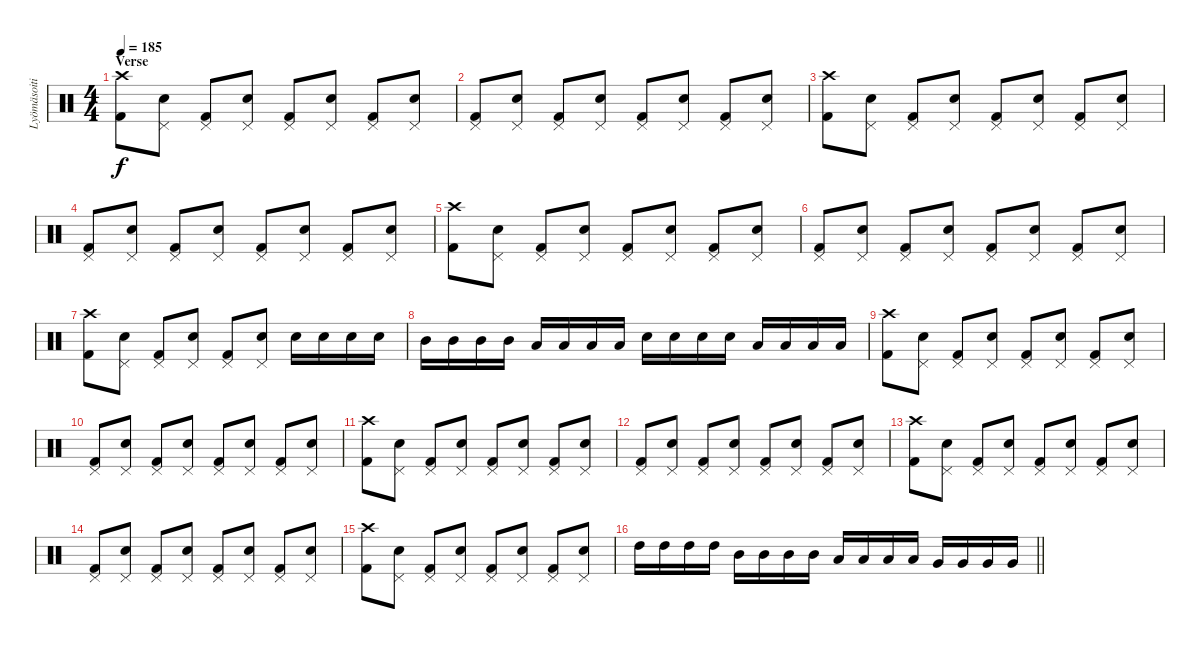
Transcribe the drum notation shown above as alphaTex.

\track ("Lyömäsoitin" "Lyömäsoiti") {instrument percussion}
\staff {score}
\articulation defaults
\ts (4 4)
\section ("" "Verse")
\tempo 185
\clef neutral
\ks c
("Crash high (hit)" "Kick (hit) 2").8{dy f} ("Pedal Hi-Hat (hit)" "Electric Snare (hit)").8 ("Pedal Hi-Hat (hit)" "Kick (hit) 2").8 ("Pedal Hi-Hat (hit)" "Electric Snare (hit)").8 ("Pedal Hi-Hat (hit)" "Kick (hit) 2").8 ("Pedal Hi-Hat (hit)" "Electric Snare (hit)").8 ("Pedal Hi-Hat (hit)" "Kick (hit) 2").8 ("Pedal Hi-Hat (hit)" "Electric Snare (hit)").8 |
("Pedal Hi-Hat (hit)" "Kick (hit) 2").8 ("Pedal Hi-Hat (hit)" "Electric Snare (hit)").8 ("Pedal Hi-Hat (hit)" "Kick (hit) 2").8 ("Pedal Hi-Hat (hit)" "Electric Snare (hit)").8 ("Pedal Hi-Hat (hit)" "Kick (hit) 2").8 ("Pedal Hi-Hat (hit)" "Electric Snare (hit)").8 ("Pedal Hi-Hat (hit)" "Kick (hit) 2").8 ("Pedal Hi-Hat (hit)" "Electric Snare (hit)").8 |
("Crash high (hit)" "Kick (hit) 2").8 ("Pedal Hi-Hat (hit)" "Electric Snare (hit)").8 ("Pedal Hi-Hat (hit)" "Kick (hit) 2").8 ("Pedal Hi-Hat (hit)" "Electric Snare (hit)").8 ("Pedal Hi-Hat (hit)" "Kick (hit) 2").8 ("Pedal Hi-Hat (hit)" "Electric Snare (hit)").8 ("Pedal Hi-Hat (hit)" "Kick (hit) 2").8 ("Pedal Hi-Hat (hit)" "Electric Snare (hit)").8 |
("Pedal Hi-Hat (hit)" "Kick (hit) 2").8 ("Pedal Hi-Hat (hit)" "Electric Snare (hit)").8 ("Pedal Hi-Hat (hit)" "Kick (hit) 2").8 ("Pedal Hi-Hat (hit)" "Electric Snare (hit)").8 ("Pedal Hi-Hat (hit)" "Kick (hit) 2").8 ("Pedal Hi-Hat (hit)" "Electric Snare (hit)").8 ("Pedal Hi-Hat (hit)" "Kick (hit) 2").8 ("Pedal Hi-Hat (hit)" "Electric Snare (hit)").8 |
("Crash high (hit)" "Kick (hit) 2").8 ("Pedal Hi-Hat (hit)" "Electric Snare (hit)").8 ("Pedal Hi-Hat (hit)" "Kick (hit) 2").8 ("Pedal Hi-Hat (hit)" "Electric Snare (hit)").8 ("Pedal Hi-Hat (hit)" "Kick (hit) 2").8 ("Pedal Hi-Hat (hit)" "Electric Snare (hit)").8 ("Pedal Hi-Hat (hit)" "Kick (hit) 2").8 ("Pedal Hi-Hat (hit)" "Electric Snare (hit)").8 |
("Pedal Hi-Hat (hit)" "Kick (hit) 2").8 ("Pedal Hi-Hat (hit)" "Electric Snare (hit)").8 ("Pedal Hi-Hat (hit)" "Kick (hit) 2").8 ("Pedal Hi-Hat (hit)" "Electric Snare (hit)").8 ("Pedal Hi-Hat (hit)" "Kick (hit) 2").8 ("Pedal Hi-Hat (hit)" "Electric Snare (hit)").8 ("Pedal Hi-Hat (hit)" "Kick (hit) 2").8 ("Pedal Hi-Hat (hit)" "Electric Snare (hit)").8 |
("Crash high (hit)" "Kick (hit) 2").8 ("Pedal Hi-Hat (hit)" "Electric Snare (hit)").8 ("Pedal Hi-Hat (hit)" "Kick (hit) 2").8 ("Pedal Hi-Hat (hit)" "Electric Snare (hit)").8 ("Pedal Hi-Hat (hit)" "Kick (hit) 2").8 ("Pedal Hi-Hat (hit)" "Electric Snare (hit)").8 "Electric Snare (hit)".16 "Electric Snare (hit)".16 "Electric Snare (hit)".16 "Electric Snare (hit)".16 |
"Mid Tom (hit)".16 "Mid Tom (hit)".16 "Mid Tom (hit)".16 "Mid Tom (hit)".16 "Low Tom (hit)".16 "Low Tom (hit)".16 "Low Tom (hit)".16 "Low Tom (hit)".16 "Electric Snare (hit)".16 "Electric Snare (hit)".16 "Electric Snare (hit)".16 "Electric Snare (hit)".16 "Low Tom (hit)".16 "Low Tom (hit)".16 "Low Tom (hit)".16 "Low Tom (hit)".16 |
("Crash high (hit)" "Kick (hit) 2").8 ("Pedal Hi-Hat (hit)" "Electric Snare (hit)").8 ("Pedal Hi-Hat (hit)" "Kick (hit) 2").8 ("Pedal Hi-Hat (hit)" "Electric Snare (hit)").8 ("Pedal Hi-Hat (hit)" "Kick (hit) 2").8 ("Pedal Hi-Hat (hit)" "Electric Snare (hit)").8 ("Pedal Hi-Hat (hit)" "Kick (hit) 2").8 ("Pedal Hi-Hat (hit)" "Electric Snare (hit)").8 |
("Pedal Hi-Hat (hit)" "Kick (hit) 2").8 ("Pedal Hi-Hat (hit)" "Electric Snare (hit)").8 ("Pedal Hi-Hat (hit)" "Kick (hit) 2").8 ("Pedal Hi-Hat (hit)" "Electric Snare (hit)").8 ("Pedal Hi-Hat (hit)" "Kick (hit) 2").8 ("Pedal Hi-Hat (hit)" "Electric Snare (hit)").8 ("Pedal Hi-Hat (hit)" "Kick (hit) 2").8 ("Pedal Hi-Hat (hit)" "Electric Snare (hit)").8 |
("Crash high (hit)" "Kick (hit) 2").8 ("Pedal Hi-Hat (hit)" "Electric Snare (hit)").8 ("Pedal Hi-Hat (hit)" "Kick (hit) 2").8 ("Pedal Hi-Hat (hit)" "Electric Snare (hit)").8 ("Pedal Hi-Hat (hit)" "Kick (hit) 2").8 ("Pedal Hi-Hat (hit)" "Electric Snare (hit)").8 ("Pedal Hi-Hat (hit)" "Kick (hit) 2").8 ("Pedal Hi-Hat (hit)" "Electric Snare (hit)").8 |
("Pedal Hi-Hat (hit)" "Kick (hit) 2").8 ("Pedal Hi-Hat (hit)" "Electric Snare (hit)").8 ("Pedal Hi-Hat (hit)" "Kick (hit) 2").8 ("Pedal Hi-Hat (hit)" "Electric Snare (hit)").8 ("Pedal Hi-Hat (hit)" "Kick (hit) 2").8 ("Pedal Hi-Hat (hit)" "Electric Snare (hit)").8 ("Pedal Hi-Hat (hit)" "Kick (hit) 2").8 ("Pedal Hi-Hat (hit)" "Electric Snare (hit)").8 |
("Crash high (hit)" "Kick (hit) 2").8 ("Pedal Hi-Hat (hit)" "Electric Snare (hit)").8 ("Pedal Hi-Hat (hit)" "Kick (hit) 2").8 ("Pedal Hi-Hat (hit)" "Electric Snare (hit)").8 ("Pedal Hi-Hat (hit)" "Kick (hit) 2").8 ("Pedal Hi-Hat (hit)" "Electric Snare (hit)").8 ("Pedal Hi-Hat (hit)" "Kick (hit) 2").8 ("Pedal Hi-Hat (hit)" "Electric Snare (hit)").8 |
("Pedal Hi-Hat (hit)" "Kick (hit) 2").8 ("Pedal Hi-Hat (hit)" "Electric Snare (hit)").8 ("Pedal Hi-Hat (hit)" "Kick (hit) 2").8 ("Pedal Hi-Hat (hit)" "Electric Snare (hit)").8 ("Pedal Hi-Hat (hit)" "Kick (hit) 2").8 ("Pedal Hi-Hat (hit)" "Electric Snare (hit)").8 ("Pedal Hi-Hat (hit)" "Kick (hit) 2").8 ("Pedal Hi-Hat (hit)" "Electric Snare (hit)").8 |
("Crash high (hit)" "Kick (hit) 2").8 ("Pedal Hi-Hat (hit)" "Electric Snare (hit)").8 ("Pedal Hi-Hat (hit)" "Kick (hit) 2").8 ("Pedal Hi-Hat (hit)" "Electric Snare (hit)").8 ("Pedal Hi-Hat (hit)" "Kick (hit) 2").8 ("Pedal Hi-Hat (hit)" "Electric Snare (hit)").8 ("Pedal Hi-Hat (hit)" "Kick (hit) 2").8 ("Pedal Hi-Hat (hit)" "Electric Snare (hit)").8 |
\barLineRight lightlight "High Tom (hit)".16 "High Tom (hit)".16 "High Tom (hit)".16 "High Tom (hit)".16 "Mid Tom (hit)".16 "Mid Tom (hit)".16 "Mid Tom (hit)".16 "Mid Tom (hit)".16 "Low Tom (hit)".16 "Low Tom (hit)".16 "Low Tom (hit)".16 "Low Tom (hit)".16 "Very Low Tom (hit)".16 "Very Low Tom (hit)".16 "Very Low Tom (hit)".16 "Very Low Tom (hit)".16
